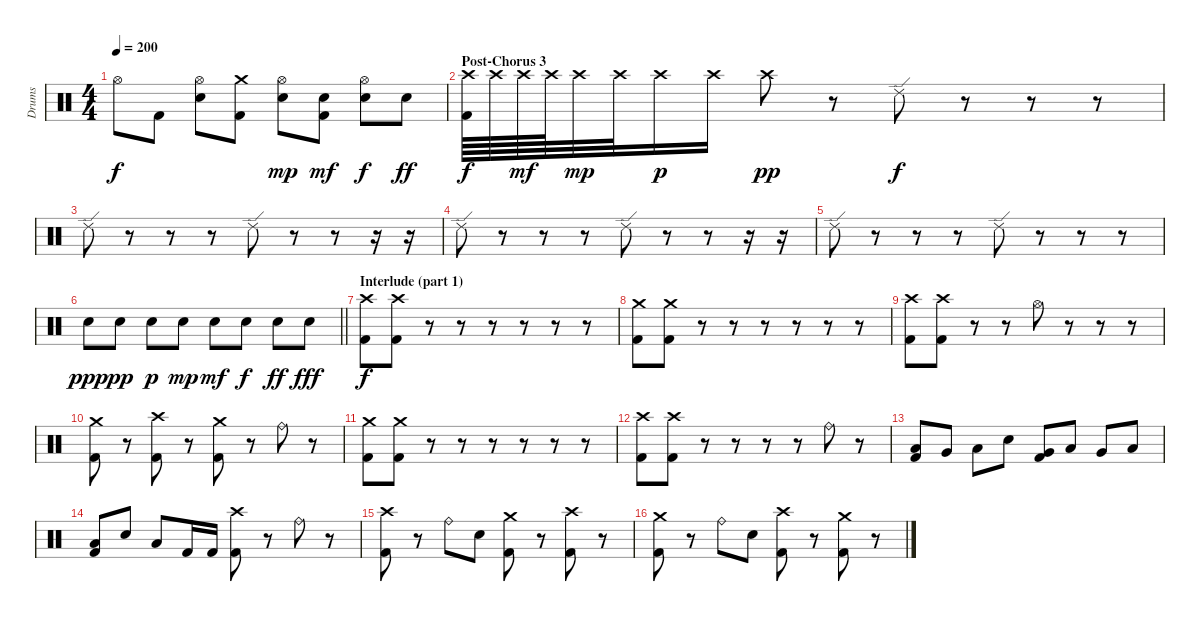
\track ("Drums" "Drums") {instrument percussion}
\staff {score}
\articulation defaults
\ts (4 4)
\tempo 200
\clef neutral
\ks c "Hi-Hat (open)".8{dy f} "Kick (hit) 2".8
("Electric Snare (hit)" "Hi-Hat (open)").8 ("Kick (hit) 2" "Crash medium (hit)").8 ("Electric Snare (hit)" "Hi-Hat (open)").8{dy mp} ("Kick (hit) 2" "Electric Snare (hit)").8{dy mf} ("Electric Snare (hit)" "Hi-Hat (open)").8{dy f} "Electric Snare (hit)".8{dy ff} |
\section ("" "Post-Chorus 3")
("Kick (hit) 2" "Crash high (hit)").64{dy f} "Crash high (hit)".64 "Crash high (hit)".64{dy mf} "Crash high (hit)".64 "Crash high (hit)".32{dy mp} "Crash high (hit)".32 "Crash high (hit)".16{dy p} "Crash high (hit)".16 "Crash high (hit)".8{dy pp} r.8 "Ride (edge) 2".8{dy f} r.8 r.8 r.8 |
"Ride (edge) 2".8 r.8 r.8 r.8 "Ride (edge) 2".8 r.8 r.8 r.16 r.16 |
"Ride (edge) 2".8 r.8 r.8 r.8 "Ride (edge) 2".8 r.8 r.8 r.16 r.16 |
"Ride (edge) 2".8 r.8 r.8 r.8 "Ride (edge) 2".8 r.8 r.8 r.8 |
\barLineRight lightlight "Electric Snare (hit)".8{dy ppp} "Electric Snare (hit)".8{dy pp} "Electric Snare (hit)".8{dy p} "Electric Snare (hit)".8{dy mp} "Electric Snare (hit)".8{dy mf} "Electric Snare (hit)".8{dy f} "Electric Snare (hit)".8{dy ff} "Electric Snare (hit)".8{dy fff}
|
\section ("" "Interlude (part 1)")
("Kick (hit) 2" "Crash high (hit)").8{dy f} ("Kick (hit) 2" "Crash high (hit)").8 r.8 r.8 r.8 r.8 r.8 r.8 |
("Kick (hit) 2" "Crash medium (hit)").8 ("Kick (hit) 2" "Crash medium (hit)").8 r.8 r.8 r.8 r.8 r.8 r.8 |
("Kick (hit) 2" "Crash high (hit)").8 ("Kick (hit) 2" "Crash high (hit)").8 r.8 r.8 "Hi-Hat (open)".8 r.8 r.8 r.8 |
("Kick (hit) 2" "Crash medium (hit)").8 r.8 ("Kick (hit) 2" "Crash high (hit)").8 r.8 ("Kick (hit) 2" "Crash medium (hit)").8 r.8 "Ride (bell)".8 r.8 |
("Kick (hit) 2" "Crash medium (hit)").8 ("Kick (hit) 2" "Crash medium (hit)").8 r.8 r.8 r.8 r.8 r.8 r.8 |
("Kick (hit) 2" "Crash high (hit)").8 ("Kick (hit) 2" "Crash high (hit)").8 r.8 r.8 r.8 r.8 "Ride (bell)".8 r.8 |
("Kick (hit) 2" "Low Floor Tom (hit)").8 "Very Low Tom (hit)".8 "Low Tom (hit)".8 "Electric Snare (hit)".8 ("Kick (hit) 2" "Very Low Tom (hit)").8 "Low Tom (hit)".8 "Very Low Tom (hit)".8 "Low Floor Tom (hit)".8 |
("Kick (hit) 2" "Low Tom (hit)").8 "Electric Snare (hit)".8 "Low Tom (hit)".8 "Kick (hit) 2".16 "Kick (hit) 2".16 ("Kick (hit) 2" "Crash high (hit)").8 r.8 "Ride (bell)".8 r.8 |
("Kick (hit) 2" "Crash high (hit)").8 r.8 "Ride (bell)".8 "Electric Snare (hit)".8 ("Kick (hit) 2" "Crash medium (hit)").8 r.8 ("Kick (hit) 2" "Crash high (hit)").8 r.8 |
("Kick (hit) 2" "Crash medium (hit)").8 r.8 "Ride (bell)".8 "Electric Snare (hit)".8 ("Kick (hit) 2" "Crash high (hit)").8 r.8 ("Kick (hit) 2" "Crash medium (hit)").8 r.8
